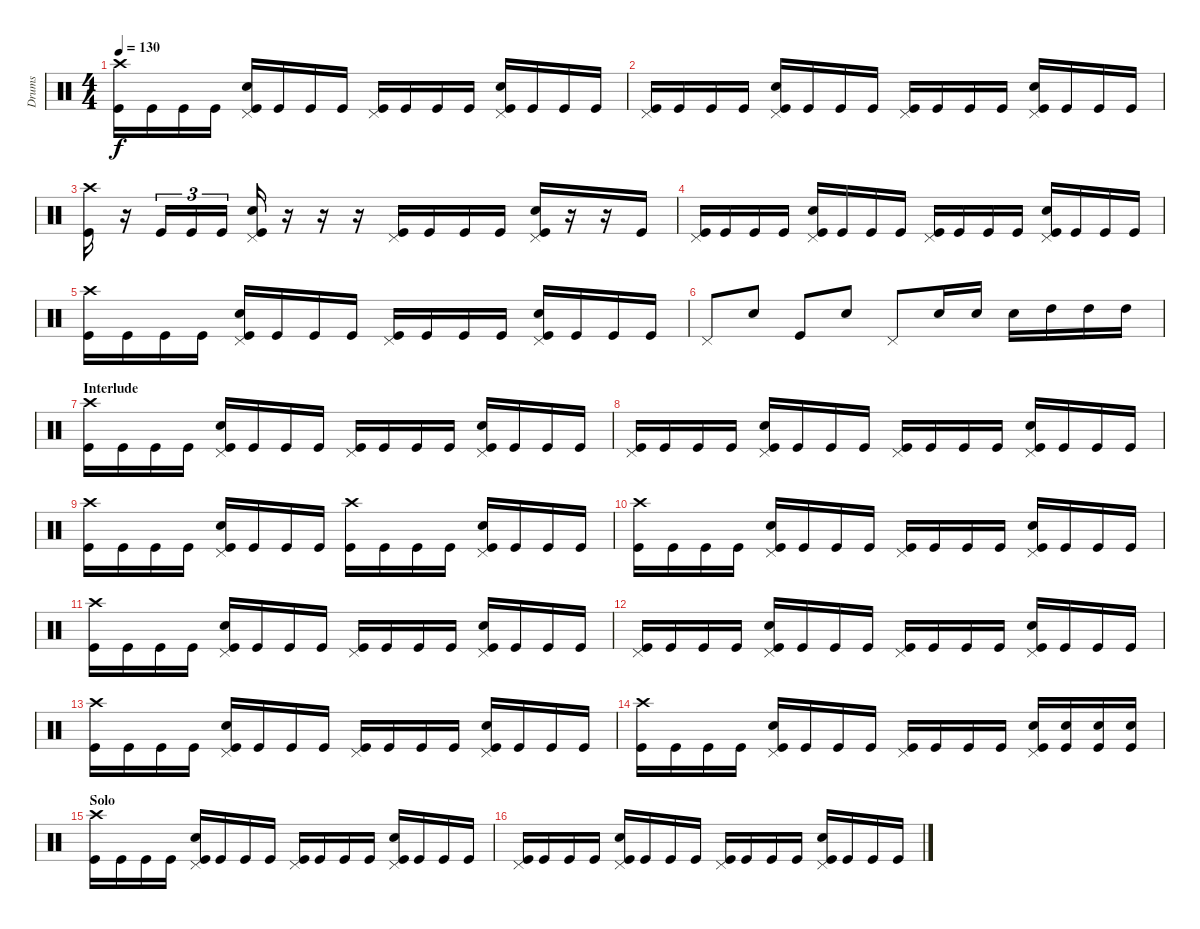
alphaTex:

\track ("Drums" "Drums") {instrument percussion}
\staff {score}
\articulation defaults
\ts (4 4)
\tempo 130
\clef neutral
\ks c
("Crash high (hit)" "Kick (hit)").16{dy f} "Kick (hit)".16 "Kick (hit)".16 "Kick (hit)".16 ("Pedal Hi-Hat (hit)" "Snare (hit) 2" "Kick (hit)").16 "Kick (hit)".16 "Kick (hit)".16 "Kick (hit)".16 ("Pedal Hi-Hat (hit)" "Kick (hit)").16 "Kick (hit)".16 "Kick (hit)".16 "Kick (hit)".16 ("Pedal Hi-Hat (hit)" "Snare (hit) 2" "Kick (hit)").16 "Kick (hit)".16 "Kick (hit)".16 "Kick (hit)".16 |
("Pedal Hi-Hat (hit)" "Kick (hit)").16 "Kick (hit)".16 "Kick (hit)".16 "Kick (hit)".16 ("Pedal Hi-Hat (hit)" "Snare (hit) 2" "Kick (hit)").16 "Kick (hit)".16 "Kick (hit)".16 "Kick (hit)".16 ("Pedal Hi-Hat (hit)" "Kick (hit)").16 "Kick (hit)".16 "Kick (hit)".16 "Kick (hit)".16 ("Pedal Hi-Hat (hit)" "Snare (hit) 2" "Kick (hit)").16 "Kick (hit)".16 "Kick (hit)".16 "Kick (hit)".16 |
("Crash high (hit)" "Kick (hit)").16 r.16 "Kick (hit)".16{tu (3 2)} "Kick (hit)".16{tu (3 2)} "Kick (hit)".16{tu (3 2)} ("Pedal Hi-Hat (hit)" "Snare (hit) 2" "Kick (hit)").16 r.16 r.16 r.16 ("Pedal Hi-Hat (hit)" "Kick (hit)").16 "Kick (hit)".16 "Kick (hit)".16 "Kick (hit)".16 ("Pedal Hi-Hat (hit)" "Snare (hit) 2" "Kick (hit)").16 r.16 r.16 "Kick (hit)".16 |
("Pedal Hi-Hat (hit)" "Kick (hit)").16 "Kick (hit)".16 "Kick (hit)".16 "Kick (hit)".16 ("Pedal Hi-Hat (hit)" "Snare (hit) 2" "Kick (hit)").16 "Kick (hit)".16 "Kick (hit)".16 "Kick (hit)".16 ("Pedal Hi-Hat (hit)" "Kick (hit)").16 "Kick (hit)".16 "Kick (hit)".16 "Kick (hit)".16 ("Pedal Hi-Hat (hit)" "Snare (hit) 2" "Kick (hit)").16 "Kick (hit)".16 "Kick (hit)".16 "Kick (hit)".16 |
("Crash high (hit)" "Kick (hit)").16 "Kick (hit)".16 "Kick (hit)".16 "Kick (hit)".16 ("Pedal Hi-Hat (hit)" "Snare (hit) 2" "Kick (hit)").16 "Kick (hit)".16 "Kick (hit)".16 "Kick (hit)".16 ("Pedal Hi-Hat (hit)" "Kick (hit)").16 "Kick (hit)".16 "Kick (hit)".16 "Kick (hit)".16 ("Pedal Hi-Hat (hit)" "Snare (hit) 2" "Kick (hit)").16 "Kick (hit)".16 "Kick (hit)".16 "Kick (hit)".16 |
"Pedal Hi-Hat (hit)".8 "Snare (hit) 2".8 "Kick (hit)".8 "Snare (hit) 2".8 "Pedal Hi-Hat (hit)".8 "Snare (hit) 2".16 "Snare (hit) 2".16 "Snare (hit) 2".16 "High Tom (hit)".16 "High Tom (hit)".16 "High Tom (hit)".16 |
\section ("" "Interlude")
("Crash high (hit)" "Kick (hit)").16 "Kick (hit)".16 "Kick (hit)".16 "Kick (hit)".16 ("Pedal Hi-Hat (hit)" "Snare (hit) 2" "Kick (hit)").16 "Kick (hit)".16 "Kick (hit)".16 "Kick (hit)".16 ("Pedal Hi-Hat (hit)" "Kick (hit)").16 "Kick (hit)".16 "Kick (hit)".16 "Kick (hit)".16 ("Pedal Hi-Hat (hit)" "Snare (hit) 2" "Kick (hit)").16 "Kick (hit)".16 "Kick (hit)".16 "Kick (hit)".16 |
("Pedal Hi-Hat (hit)" "Kick (hit)").16 "Kick (hit)".16 "Kick (hit)".16 "Kick (hit)".16 ("Pedal Hi-Hat (hit)" "Snare (hit) 2" "Kick (hit)").16 "Kick (hit)".16 "Kick (hit)".16 "Kick (hit)".16 ("Pedal Hi-Hat (hit)" "Kick (hit)").16 "Kick (hit)".16 "Kick (hit)".16 "Kick (hit)".16 ("Pedal Hi-Hat (hit)" "Snare (hit) 2" "Kick (hit)").16 "Kick (hit)".16 "Kick (hit)".16 "Kick (hit)".16 |
("Crash high (hit)" "Kick (hit)").16 "Kick (hit)".16 "Kick (hit)".16 "Kick (hit)".16 ("Pedal Hi-Hat (hit)" "Snare (hit) 2" "Kick (hit)").16 "Kick (hit)".16 "Kick (hit)".16 "Kick (hit)".16 ("Crash high (hit)" "Kick (hit)").16 "Kick (hit)".16 "Kick (hit)".16 "Kick (hit)".16 ("Pedal Hi-Hat (hit)" "Snare (hit) 2" "Kick (hit)").16 "Kick (hit)".16 "Kick (hit)".16 "Kick (hit)".16 |
("Crash high (hit)" "Kick (hit)").16 "Kick (hit)".16 "Kick (hit)".16 "Kick (hit)".16 ("Pedal Hi-Hat (hit)" "Snare (hit) 2" "Kick (hit)").16 "Kick (hit)".16 "Kick (hit)".16 "Kick (hit)".16 ("Pedal Hi-Hat (hit)" "Kick (hit)").16 "Kick (hit)".16 "Kick (hit)".16 "Kick (hit)".16 ("Pedal Hi-Hat (hit)" "Snare (hit) 2" "Kick (hit)").16 "Kick (hit)".16 "Kick (hit)".16 "Kick (hit)".16 |
("Crash high (hit)" "Kick (hit)").16 "Kick (hit)".16 "Kick (hit)".16 "Kick (hit)".16 ("Pedal Hi-Hat (hit)" "Snare (hit) 2" "Kick (hit)").16 "Kick (hit)".16 "Kick (hit)".16 "Kick (hit)".16 ("Pedal Hi-Hat (hit)" "Kick (hit)").16 "Kick (hit)".16 "Kick (hit)".16 "Kick (hit)".16 ("Pedal Hi-Hat (hit)" "Snare (hit) 2" "Kick (hit)").16 "Kick (hit)".16 "Kick (hit)".16 "Kick (hit)".16 |
("Pedal Hi-Hat (hit)" "Kick (hit)").16 "Kick (hit)".16 "Kick (hit)".16 "Kick (hit)".16 ("Pedal Hi-Hat (hit)" "Snare (hit) 2" "Kick (hit)").16 "Kick (hit)".16 "Kick (hit)".16 "Kick (hit)".16 ("Pedal Hi-Hat (hit)" "Kick (hit)").16 "Kick (hit)".16 "Kick (hit)".16 "Kick (hit)".16 ("Pedal Hi-Hat (hit)" "Snare (hit) 2" "Kick (hit)").16 "Kick (hit)".16 "Kick (hit)".16 "Kick (hit)".16 |
("Crash high (hit)" "Kick (hit)").16 "Kick (hit)".16 "Kick (hit)".16 "Kick (hit)".16 ("Pedal Hi-Hat (hit)" "Snare (hit) 2" "Kick (hit)").16 "Kick (hit)".16 "Kick (hit)".16 "Kick (hit)".16 ("Pedal Hi-Hat (hit)" "Kick (hit)").16 "Kick (hit)".16 "Kick (hit)".16 "Kick (hit)".16 ("Pedal Hi-Hat (hit)" "Snare (hit) 2" "Kick (hit)").16 "Kick (hit)".16 "Kick (hit)".16 "Kick (hit)".16 |
("Crash high (hit)" "Kick (hit)").16 "Kick (hit)".16 "Kick (hit)".16 "Kick (hit)".16 ("Pedal Hi-Hat (hit)" "Snare (hit) 2" "Kick (hit)").16 "Kick (hit)".16 "Kick (hit)".16 "Kick (hit)".16 ("Pedal Hi-Hat (hit)" "Kick (hit)").16 "Kick (hit)".16 "Kick (hit)".16 "Kick (hit)".16 ("Pedal Hi-Hat (hit)" "Snare (hit) 2" "Kick (hit)").16 ("Snare (hit) 2" "Kick (hit)").16 ("Snare (hit) 2" "Kick (hit)").16 ("Snare (hit) 2" "Kick (hit)").16 |
\section ("" "Solo")
("Crash high (hit)" "Kick (hit)").16 "Kick (hit)".16 "Kick (hit)".16 "Kick (hit)".16 ("Pedal Hi-Hat (hit)" "Snare (hit) 2" "Kick (hit)").16 "Kick (hit)".16 "Kick (hit)".16 "Kick (hit)".16 ("Pedal Hi-Hat (hit)" "Kick (hit)").16 "Kick (hit)".16 "Kick (hit)".16 "Kick (hit)".16 ("Pedal Hi-Hat (hit)" "Snare (hit) 2" "Kick (hit)").16 "Kick (hit)".16 "Kick (hit)".16 "Kick (hit)".16 |
("Pedal Hi-Hat (hit)" "Kick (hit)").16 "Kick (hit)".16 "Kick (hit)".16 "Kick (hit)".16 ("Pedal Hi-Hat (hit)" "Snare (hit) 2" "Kick (hit)").16 "Kick (hit)".16 "Kick (hit)".16 "Kick (hit)".16 ("Pedal Hi-Hat (hit)" "Kick (hit)").16 "Kick (hit)".16 "Kick (hit)".16 "Kick (hit)".16 ("Pedal Hi-Hat (hit)" "Snare (hit) 2" "Kick (hit)").16 "Kick (hit)".16 "Kick (hit)".16 "Kick (hit)".16
